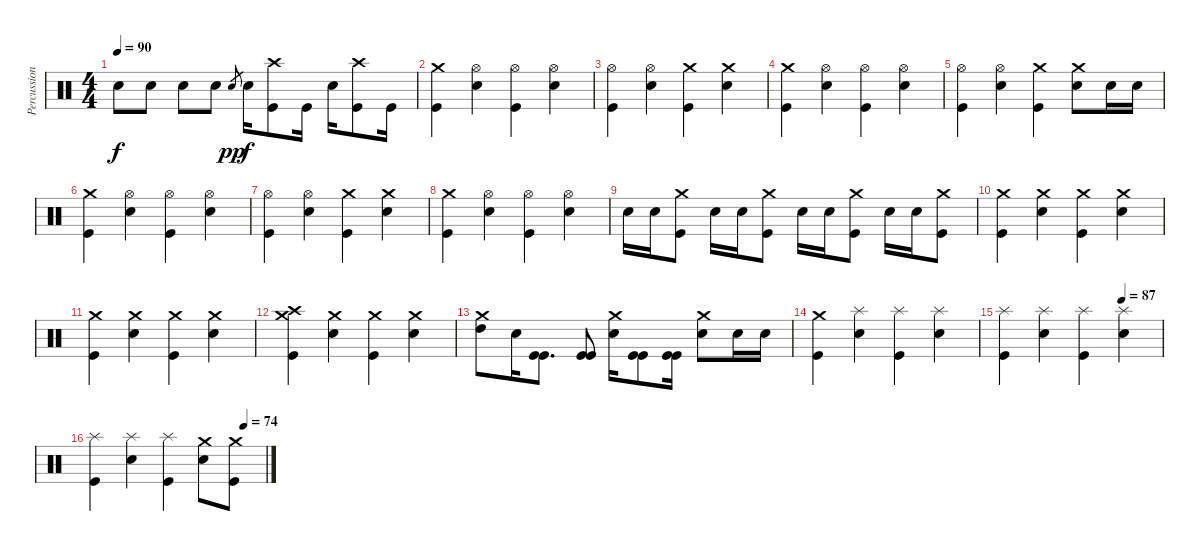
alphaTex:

\track ("Percussion" "Percussion") {instrument percussion}
\staff {score}
\articulation defaults
\ts (4 4)
\tempo 90
\clef neutral
\ks c "Snare (hit) 2".8{dy f} "Snare (hit) 2".8 "Snare (hit) 2".8 "Snare (hit) 2".8 "Snare (hit) 2".8{gr dy pp} "Snare (hit) 2".16{dy f}
("Crash high (hit)" "Kick (hit)").8 "Kick (hit)".16 "Snare (hit) 2".16 ("Crash high (hit)" "Kick (hit)").8 "Kick (hit)".16 |
("Crash medium (hit)" "Kick (hit)").4 ("Hi-Hat (open)" "Snare (hit) 2").4 ("Hi-Hat (open)" "Kick (hit)").4 ("Hi-Hat (open)" "Snare (hit) 2").4 |
("Hi-Hat (open)" "Kick (hit)").4 ("Hi-Hat (open)" "Snare (hit) 2").4 ("Crash medium (hit)" "Kick (hit)").4 ("Crash medium (hit)" "Snare (hit) 2").4 |
("Crash medium (hit)" "Kick (hit)").4 ("Hi-Hat (open)" "Snare (hit) 2").4 ("Hi-Hat (open)" "Kick (hit)").4 ("Hi-Hat (open)" "Snare (hit) 2").4 |
("Hi-Hat (open)" "Kick (hit)").4 ("Hi-Hat (open)" "Snare (hit) 2").4 ("Crash medium (hit)" "Kick (hit)").4 ("Crash medium (hit)" "Snare (hit) 2").8 "Snare (hit) 2".16 "Snare (hit) 2".16 |
("Crash medium (hit)" "Kick (hit)").4 ("Hi-Hat (open)" "Snare (hit) 2").4 ("Hi-Hat (open)" "Kick (hit)").4 ("Hi-Hat (open)" "Snare (hit) 2").4 |
("Hi-Hat (open)" "Kick (hit)").4 ("Hi-Hat (open)" "Snare (hit) 2").4 ("Crash medium (hit)" "Kick (hit)").4 ("Crash medium (hit)" "Snare (hit) 2").4 |
("Crash medium (hit)" "Kick (hit)").4 ("Hi-Hat (open)" "Snare (hit) 2").4 ("Hi-Hat (open)" "Kick (hit)").4 ("Hi-Hat (open)" "Snare (hit) 2").4 |
"Snare (hit) 2".16 "Snare (hit) 2".16 ("Crash medium (hit)" "Kick (hit)").8 "Snare (hit) 2".16 "Snare (hit) 2".16 ("Crash medium (hit)" "Kick (hit)").8 "Snare (hit) 2".16 "Snare (hit) 2".16 ("Crash medium (hit)" "Kick (hit)").8 "Snare (hit) 2".16 "Snare (hit) 2".16 ("Crash medium (hit)" "Kick (hit)").8 |
("Crash medium (hit)" "Kick (hit)").4 ("Crash medium (hit)" "Snare (hit) 2").4 ("Crash medium (hit)" "Kick (hit)").4 ("Crash medium (hit)" "Snare (hit) 2").4 |
("Crash medium (hit)" "Kick (hit)").4 ("Crash medium (hit)" "Snare (hit) 2").4 ("Crash medium (hit)" "Kick (hit)").4 ("Crash medium (hit)" "Snare (hit) 2").4 |
("Crash high (hit)" "Crash medium (hit)" "Kick (hit)").4 ("Crash medium (hit)" "Snare (hit) 2").4 ("Crash medium (hit)" "Kick (hit)").4 ("Crash medium (hit)" "Snare (hit) 2").4 |
("Crash medium (hit)" "High Tom (hit)").8 "Snare (hit) 2".16 ("Kick (hit)" "Kick (hit)").8{d} ("Kick (hit)" "Kick (hit)").8 ("Crash medium (hit)" "Snare (hit) 2").16 ("Kick (hit)" "Kick (hit)").8 ("Kick (hit)" "Kick (hit)").16 ("Crash medium (hit)" "Snare (hit) 2").8 "Snare (hit) 2".16 "Snare (hit) 2".16 |
("Crash medium (hit)" "Kick (hit)").4 ("Splash (hit)" "Snare (hit) 2").4 ("Splash (hit)" "Kick (hit)").4 ("Splash (hit)" "Snare (hit) 2").4 |
\tempo (87 0.75)
("Splash (hit)" "Kick (hit)").4 ("Splash (hit)" "Snare (hit) 2").4 ("Splash (hit)" "Kick (hit)").4 ("Splash (hit)" "Snare (hit) 2").4 |
\tempo (74 0.875)
("Splash (hit)" "Kick (hit)").4 ("Splash (hit)" "Snare (hit) 2").4 ("Splash (hit)" "Kick (hit)").4 ("Crash medium (hit)" "Snare (hit) 2").8 ("Crash medium (hit)" "Kick (hit)").8
